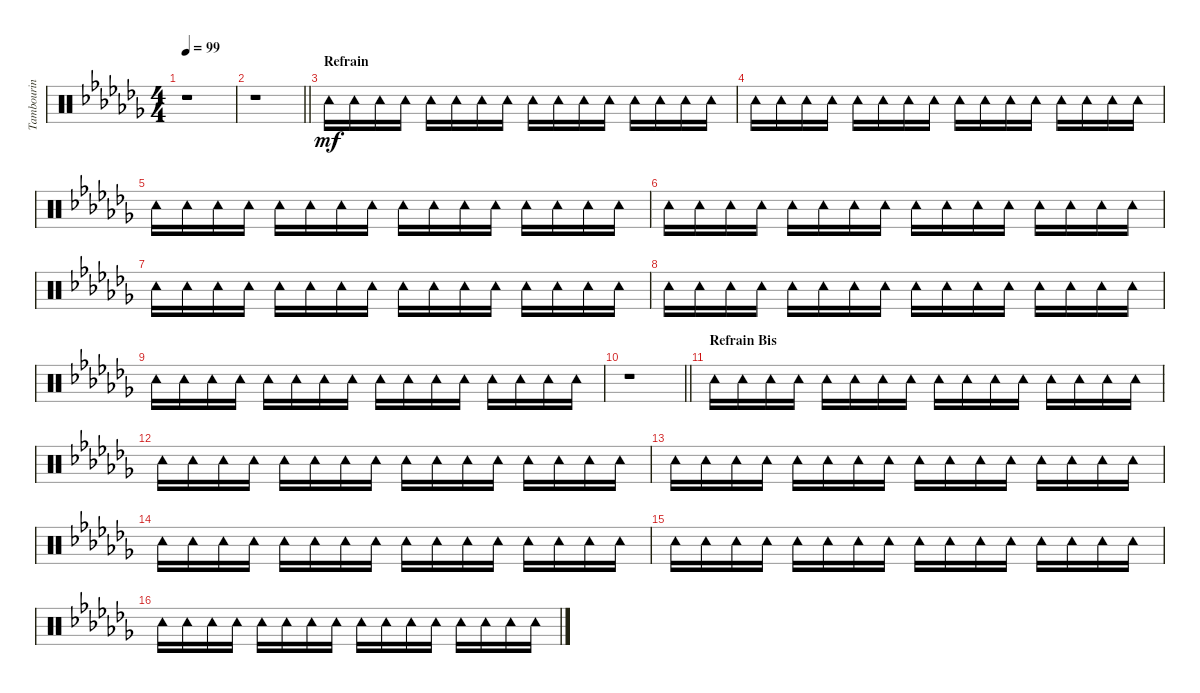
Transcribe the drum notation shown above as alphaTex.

\track ("Tambourin" "Tambourin") {instrument percussion}
\staff {score}
\articulation defaults
\ts (4 4)
\tempo 99
\clef neutral
\ks cb
r.1{dy mf} |
\barLineRight lightlight
r.1 |
\section ("" "Refrain")
"Tambourine (hit)".16 "Tambourine (hit)".16 "Tambourine (hit)".16 "Tambourine (hit)".16 "Tambourine (hit)".16 "Tambourine (hit)".16 "Tambourine (hit)".16 "Tambourine (hit)".16 "Tambourine (hit)".16 "Tambourine (hit)".16 "Tambourine (hit)".16 "Tambourine (hit)".16 "Tambourine (hit)".16 "Tambourine (hit)".16 "Tambourine (hit)".16 "Tambourine (hit)".16 |
"Tambourine (hit)".16 "Tambourine (hit)".16 "Tambourine (hit)".16 "Tambourine (hit)".16 "Tambourine (hit)".16 "Tambourine (hit)".16 "Tambourine (hit)".16 "Tambourine (hit)".16 "Tambourine (hit)".16 "Tambourine (hit)".16 "Tambourine (hit)".16 "Tambourine (hit)".16 "Tambourine (hit)".16 "Tambourine (hit)".16 "Tambourine (hit)".16 "Tambourine (hit)".16 |
"Tambourine (hit)".16 "Tambourine (hit)".16 "Tambourine (hit)".16 "Tambourine (hit)".16 "Tambourine (hit)".16 "Tambourine (hit)".16 "Tambourine (hit)".16 "Tambourine (hit)".16 "Tambourine (hit)".16 "Tambourine (hit)".16 "Tambourine (hit)".16 "Tambourine (hit)".16 "Tambourine (hit)".16 "Tambourine (hit)".16 "Tambourine (hit)".16 "Tambourine (hit)".16 |
"Tambourine (hit)".16 "Tambourine (hit)".16 "Tambourine (hit)".16 "Tambourine (hit)".16 "Tambourine (hit)".16 "Tambourine (hit)".16 "Tambourine (hit)".16 "Tambourine (hit)".16 "Tambourine (hit)".16 "Tambourine (hit)".16 "Tambourine (hit)".16 "Tambourine (hit)".16 "Tambourine (hit)".16 "Tambourine (hit)".16 "Tambourine (hit)".16 "Tambourine (hit)".16 |
"Tambourine (hit)".16 "Tambourine (hit)".16 "Tambourine (hit)".16 "Tambourine (hit)".16 "Tambourine (hit)".16 "Tambourine (hit)".16 "Tambourine (hit)".16 "Tambourine (hit)".16 "Tambourine (hit)".16 "Tambourine (hit)".16 "Tambourine (hit)".16 "Tambourine (hit)".16 "Tambourine (hit)".16 "Tambourine (hit)".16 "Tambourine (hit)".16 "Tambourine (hit)".16 |
"Tambourine (hit)".16 "Tambourine (hit)".16 "Tambourine (hit)".16 "Tambourine (hit)".16 "Tambourine (hit)".16 "Tambourine (hit)".16 "Tambourine (hit)".16 "Tambourine (hit)".16 "Tambourine (hit)".16 "Tambourine (hit)".16 "Tambourine (hit)".16 "Tambourine (hit)".16 "Tambourine (hit)".16 "Tambourine (hit)".16 "Tambourine (hit)".16 "Tambourine (hit)".16 |
"Tambourine (hit)".16 "Tambourine (hit)".16 "Tambourine (hit)".16 "Tambourine (hit)".16 "Tambourine (hit)".16 "Tambourine (hit)".16 "Tambourine (hit)".16 "Tambourine (hit)".16 "Tambourine (hit)".16 "Tambourine (hit)".16 "Tambourine (hit)".16 "Tambourine (hit)".16 "Tambourine (hit)".16 "Tambourine (hit)".16 "Tambourine (hit)".16 "Tambourine (hit)".16 |
\barLineRight lightlight
r.1 |
\section ("" "Refrain Bis")
"Tambourine (hit)".16 "Tambourine (hit)".16 "Tambourine (hit)".16 "Tambourine (hit)".16 "Tambourine (hit)".16 "Tambourine (hit)".16 "Tambourine (hit)".16 "Tambourine (hit)".16 "Tambourine (hit)".16 "Tambourine (hit)".16 "Tambourine (hit)".16 "Tambourine (hit)".16 "Tambourine (hit)".16 "Tambourine (hit)".16 "Tambourine (hit)".16 "Tambourine (hit)".16 |
"Tambourine (hit)".16 "Tambourine (hit)".16 "Tambourine (hit)".16 "Tambourine (hit)".16 "Tambourine (hit)".16 "Tambourine (hit)".16 "Tambourine (hit)".16 "Tambourine (hit)".16 "Tambourine (hit)".16 "Tambourine (hit)".16 "Tambourine (hit)".16 "Tambourine (hit)".16 "Tambourine (hit)".16 "Tambourine (hit)".16 "Tambourine (hit)".16 "Tambourine (hit)".16 |
"Tambourine (hit)".16 "Tambourine (hit)".16 "Tambourine (hit)".16 "Tambourine (hit)".16 "Tambourine (hit)".16 "Tambourine (hit)".16 "Tambourine (hit)".16 "Tambourine (hit)".16 "Tambourine (hit)".16 "Tambourine (hit)".16 "Tambourine (hit)".16 "Tambourine (hit)".16 "Tambourine (hit)".16 "Tambourine (hit)".16 "Tambourine (hit)".16 "Tambourine (hit)".16 |
"Tambourine (hit)".16 "Tambourine (hit)".16 "Tambourine (hit)".16 "Tambourine (hit)".16 "Tambourine (hit)".16 "Tambourine (hit)".16 "Tambourine (hit)".16 "Tambourine (hit)".16 "Tambourine (hit)".16 "Tambourine (hit)".16 "Tambourine (hit)".16 "Tambourine (hit)".16 "Tambourine (hit)".16 "Tambourine (hit)".16 "Tambourine (hit)".16 "Tambourine (hit)".16 |
"Tambourine (hit)".16 "Tambourine (hit)".16 "Tambourine (hit)".16 "Tambourine (hit)".16 "Tambourine (hit)".16 "Tambourine (hit)".16 "Tambourine (hit)".16 "Tambourine (hit)".16 "Tambourine (hit)".16 "Tambourine (hit)".16 "Tambourine (hit)".16 "Tambourine (hit)".16 "Tambourine (hit)".16 "Tambourine (hit)".16 "Tambourine (hit)".16 "Tambourine (hit)".16 |
"Tambourine (hit)".16 "Tambourine (hit)".16 "Tambourine (hit)".16 "Tambourine (hit)".16 "Tambourine (hit)".16 "Tambourine (hit)".16 "Tambourine (hit)".16 "Tambourine (hit)".16 "Tambourine (hit)".16 "Tambourine (hit)".16 "Tambourine (hit)".16 "Tambourine (hit)".16 "Tambourine (hit)".16 "Tambourine (hit)".16 "Tambourine (hit)".16 "Tambourine (hit)".16
